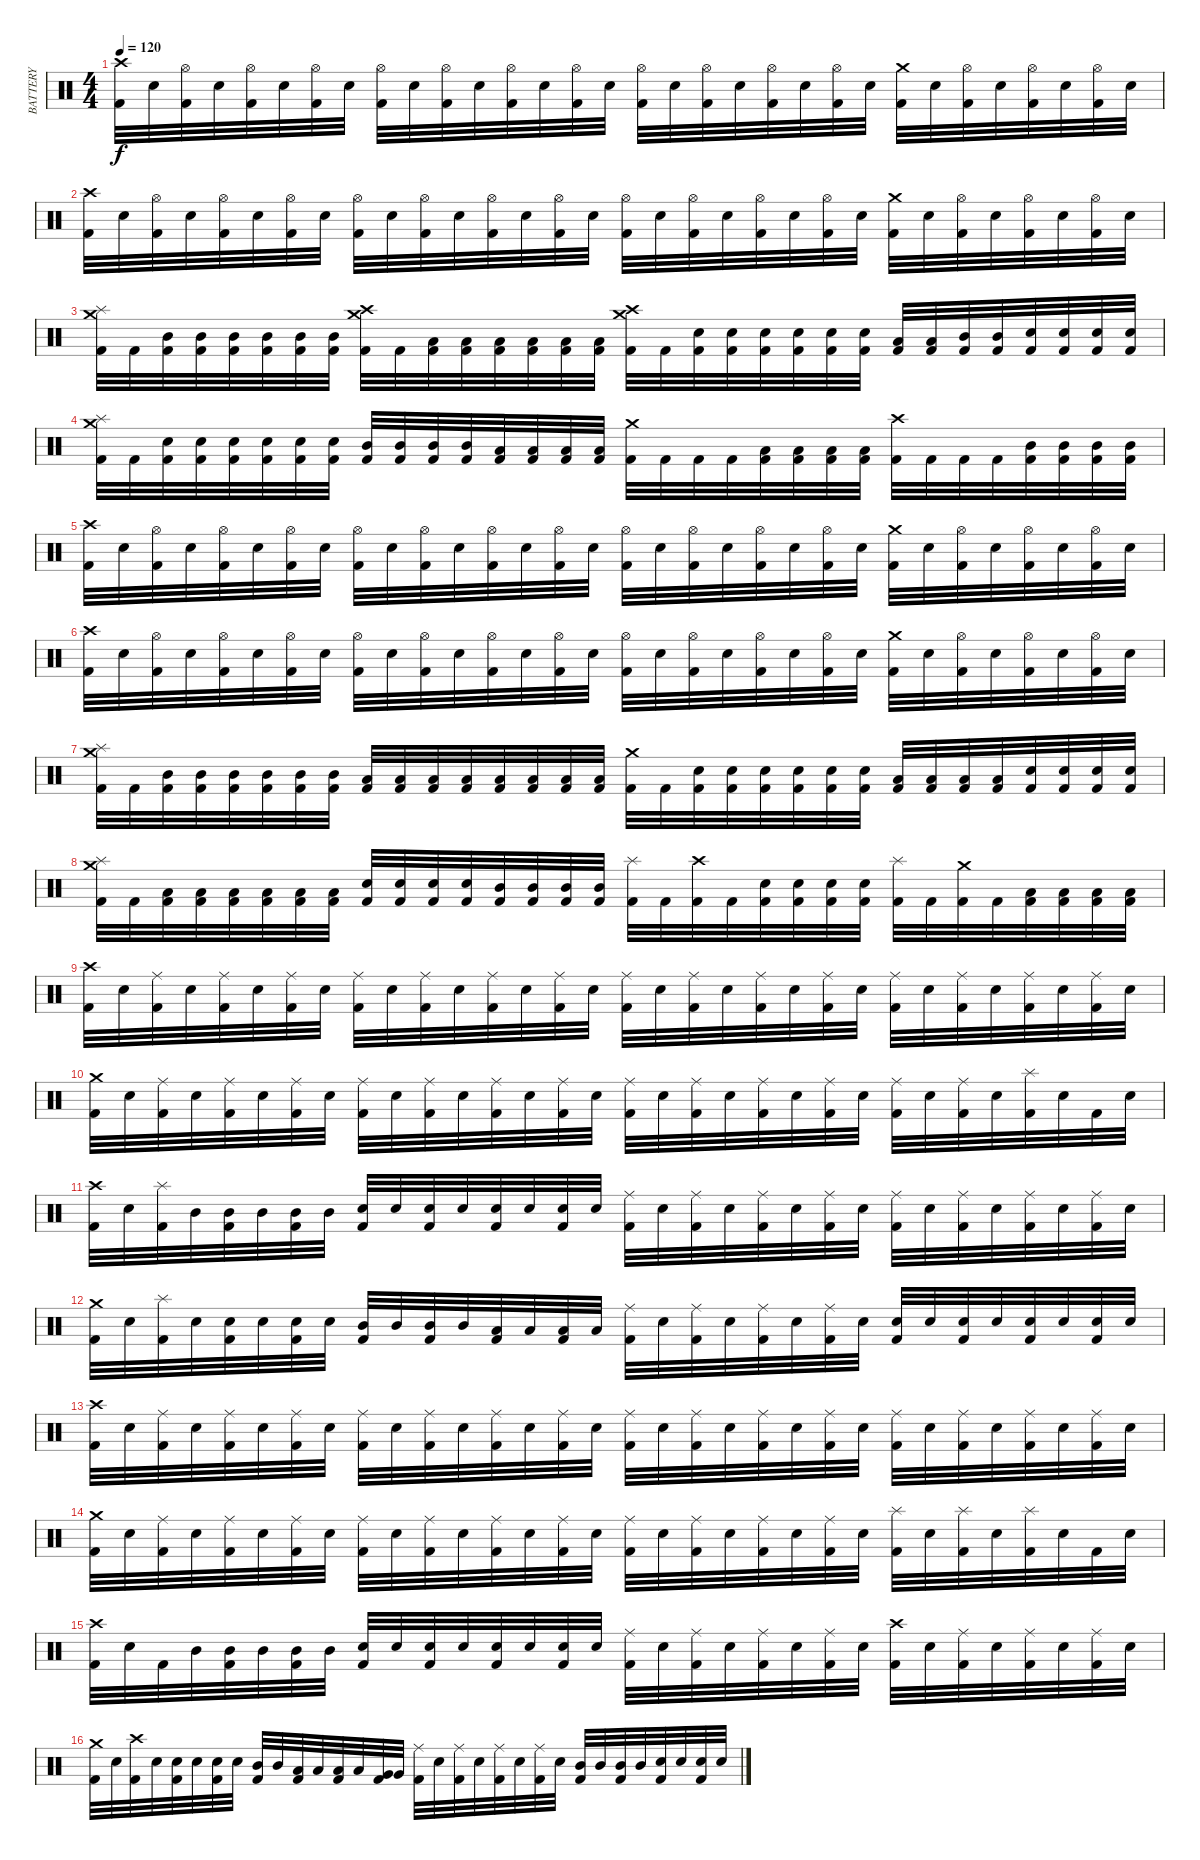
\track ("BATTERY" "BATTERY") {instrument percussion}
\staff {score}
\articulation defaults
\ts (4 4)
\tempo 120
\clef neutral
\ks c
("Kick (hit) 2" "Crash high (hit)").32{dy f} "Snare (hit) 2".32 ("Kick (hit) 2" "Hi-Hat (open)").32 "Snare (hit) 2".32 ("Kick (hit) 2" "Hi-Hat (open)").32 "Snare (hit) 2".32 ("Kick (hit) 2" "Hi-Hat (open)").32 "Snare (hit) 2".32 ("Kick (hit) 2" "Hi-Hat (open)").32 "Snare (hit) 2".32 ("Kick (hit) 2" "Hi-Hat (open)").32 "Snare (hit) 2".32 ("Kick (hit) 2" "Hi-Hat (open)").32 "Snare (hit) 2".32 ("Kick (hit) 2" "Hi-Hat (open)").32 "Snare (hit) 2".32 ("Kick (hit) 2" "Hi-Hat (open)").32 "Snare (hit) 2".32 ("Kick (hit) 2" "Hi-Hat (open)").32 "Snare (hit) 2".32 ("Kick (hit) 2" "Hi-Hat (open)").32 "Snare (hit) 2".32 ("Kick (hit) 2" "Hi-Hat (open)").32 "Snare (hit) 2".32 ("Kick (hit) 2" "Crash medium (hit)").32 "Snare (hit) 2".32 ("Kick (hit) 2" "Hi-Hat (open)").32 "Snare (hit) 2".32 ("Kick (hit) 2" "Hi-Hat (open)").32 "Snare (hit) 2".32 ("Kick (hit) 2" "Hi-Hat (open)").32 "Snare (hit) 2".32 |
("Kick (hit) 2" "Crash high (hit)").32 "Snare (hit) 2".32 ("Kick (hit) 2" "Hi-Hat (open)").32 "Snare (hit) 2".32 ("Kick (hit) 2" "Hi-Hat (open)").32 "Snare (hit) 2".32 ("Kick (hit) 2" "Hi-Hat (open)").32 "Snare (hit) 2".32 ("Kick (hit) 2" "Hi-Hat (open)").32 "Snare (hit) 2".32 ("Kick (hit) 2" "Hi-Hat (open)").32 "Snare (hit) 2".32 ("Kick (hit) 2" "Hi-Hat (open)").32 "Snare (hit) 2".32 ("Kick (hit) 2" "Hi-Hat (open)").32 "Snare (hit) 2".32 ("Kick (hit) 2" "Hi-Hat (open)").32 "Snare (hit) 2".32 ("Kick (hit) 2" "Hi-Hat (open)").32 "Snare (hit) 2".32 ("Kick (hit) 2" "Hi-Hat (open)").32 "Snare (hit) 2".32 ("Kick (hit) 2" "Hi-Hat (open)").32 "Snare (hit) 2".32 ("Kick (hit) 2" "Crash medium (hit)").32 "Snare (hit) 2".32 ("Kick (hit) 2" "Hi-Hat (open)").32 "Snare (hit) 2".32 ("Kick (hit) 2" "Hi-Hat (open)").32 "Snare (hit) 2".32 ("Kick (hit) 2" "Hi-Hat (open)").32 "Snare (hit) 2".32 |
("Kick (hit) 2" "Splash (hit)" "Crash medium (hit)").32 "Kick (hit) 2".32 ("Kick (hit) 2" "Mid Tom (hit)").32 ("Kick (hit) 2" "Mid Tom (hit)").32 ("Kick (hit) 2" "Mid Tom (hit)").32 ("Kick (hit) 2" "Mid Tom (hit)").32 ("Kick (hit) 2" "Mid Tom (hit)").32 ("Kick (hit) 2" "Mid Tom (hit)").32 ("Kick (hit) 2" "Crash medium (hit)" "Crash high (hit)").32 "Kick (hit) 2".32 ("Kick (hit) 2" "Low Tom (hit)").32 ("Kick (hit) 2" "Low Tom (hit)").32 ("Kick (hit) 2" "Low Tom (hit)").32 ("Kick (hit) 2" "Low Tom (hit)").32 ("Kick (hit) 2" "Low Tom (hit)").32 ("Kick (hit) 2" "Low Tom (hit)").32 ("Kick (hit) 2" "Crash high (hit)" "Crash medium (hit)").32 "Kick (hit) 2".32 ("Kick (hit) 2" "Snare (hit) 2").32 ("Kick (hit) 2" "Snare (hit) 2").32 ("Kick (hit) 2" "Snare (hit) 2").32 ("Kick (hit) 2" "Snare (hit) 2").32 ("Kick (hit) 2" "Snare (hit) 2").32 ("Kick (hit) 2" "Snare (hit) 2").32 ("Kick (hit) 2" "Low Tom (hit)").32 ("Kick (hit) 2" "Low Tom (hit)").32 ("Kick (hit) 2" "Mid Tom (hit)").32 ("Kick (hit) 2" "Mid Tom (hit)").32 ("Kick (hit) 2" "Snare (hit) 2").32 ("Kick (hit) 2" "Snare (hit) 2").32 ("Kick (hit) 2" "Snare (hit) 2").32 ("Kick (hit) 2" "Snare (hit) 2").32 |
("Kick (hit) 2" "Splash (hit)" "Crash medium (hit)").32 "Kick (hit) 2".32 ("Kick (hit) 2" "Snare (hit) 2").32 ("Kick (hit) 2" "Snare (hit) 2").32 ("Kick (hit) 2" "Snare (hit) 2").32 ("Kick (hit) 2" "Snare (hit) 2").32 ("Kick (hit) 2" "Snare (hit) 2").32 ("Kick (hit) 2" "Snare (hit) 2").32 ("Kick (hit) 2" "Mid Tom (hit)").32 ("Kick (hit) 2" "Mid Tom (hit)").32 ("Kick (hit) 2" "Mid Tom (hit)").32 ("Kick (hit) 2" "Mid Tom (hit)").32 ("Kick (hit) 2" "Low Tom (hit)").32 ("Kick (hit) 2" "Low Tom (hit)").32 ("Kick (hit) 2" "Low Tom (hit)").32 ("Kick (hit) 2" "Low Tom (hit)").32 ("Kick (hit) 2" "Crash medium (hit)").32 "Kick (hit) 2".32 "Kick (hit) 2".32 "Kick (hit) 2".32 ("Kick (hit) 2" "Low Tom (hit)").32 ("Kick (hit) 2" "Low Tom (hit)").32 ("Kick (hit) 2" "Low Tom (hit)").32 ("Kick (hit) 2" "Low Tom (hit)").32 ("Kick (hit) 2" "Crash high (hit)").32 "Kick (hit) 2".32 "Kick (hit) 2".32 "Kick (hit) 2".32 ("Kick (hit) 2" "Mid Tom (hit)").32 ("Kick (hit) 2" "Mid Tom (hit)").32 ("Kick (hit) 2" "Mid Tom (hit)").32 ("Kick (hit) 2" "Mid Tom (hit)").32 |
("Kick (hit) 2" "Crash high (hit)").32 "Snare (hit) 2".32 ("Kick (hit) 2" "Hi-Hat (open)").32 "Snare (hit) 2".32 ("Kick (hit) 2" "Hi-Hat (open)").32 "Snare (hit) 2".32 ("Kick (hit) 2" "Hi-Hat (open)").32 "Snare (hit) 2".32 ("Kick (hit) 2" "Hi-Hat (open)").32 "Snare (hit) 2".32 ("Kick (hit) 2" "Hi-Hat (open)").32 "Snare (hit) 2".32 ("Kick (hit) 2" "Hi-Hat (open)").32 "Snare (hit) 2".32 ("Kick (hit) 2" "Hi-Hat (open)").32 "Snare (hit) 2".32 ("Kick (hit) 2" "Hi-Hat (open)").32 "Snare (hit) 2".32 ("Kick (hit) 2" "Hi-Hat (open)").32 "Snare (hit) 2".32 ("Kick (hit) 2" "Hi-Hat (open)").32 "Snare (hit) 2".32 ("Kick (hit) 2" "Hi-Hat (open)").32 "Snare (hit) 2".32 ("Kick (hit) 2" "Crash medium (hit)").32 "Snare (hit) 2".32 ("Kick (hit) 2" "Hi-Hat (open)").32 "Snare (hit) 2".32 ("Kick (hit) 2" "Hi-Hat (open)").32 "Snare (hit) 2".32 ("Kick (hit) 2" "Hi-Hat (open)").32 "Snare (hit) 2".32 |
("Kick (hit) 2" "Crash high (hit)").32 "Snare (hit) 2".32 ("Kick (hit) 2" "Hi-Hat (open)").32 "Snare (hit) 2".32 ("Kick (hit) 2" "Hi-Hat (open)").32 "Snare (hit) 2".32 ("Kick (hit) 2" "Hi-Hat (open)").32 "Snare (hit) 2".32 ("Kick (hit) 2" "Hi-Hat (open)").32 "Snare (hit) 2".32 ("Kick (hit) 2" "Hi-Hat (open)").32 "Snare (hit) 2".32 ("Kick (hit) 2" "Hi-Hat (open)").32 "Snare (hit) 2".32 ("Kick (hit) 2" "Hi-Hat (open)").32 "Snare (hit) 2".32 ("Kick (hit) 2" "Hi-Hat (open)").32 "Snare (hit) 2".32 ("Kick (hit) 2" "Hi-Hat (open)").32 "Snare (hit) 2".32 ("Kick (hit) 2" "Hi-Hat (open)").32 "Snare (hit) 2".32 ("Kick (hit) 2" "Hi-Hat (open)").32 "Snare (hit) 2".32 ("Kick (hit) 2" "Crash medium (hit)").32 "Snare (hit) 2".32 ("Kick (hit) 2" "Hi-Hat (open)").32 "Snare (hit) 2".32 ("Kick (hit) 2" "Hi-Hat (open)").32 "Snare (hit) 2".32 ("Kick (hit) 2" "Hi-Hat (open)").32 "Snare (hit) 2".32 |
("Kick (hit) 2" "Splash (hit)" "Crash medium (hit)").32 "Kick (hit) 2".32 ("Kick (hit) 2" "Mid Tom (hit)").32 ("Kick (hit) 2" "Mid Tom (hit)").32 ("Kick (hit) 2" "Mid Tom (hit)").32 ("Kick (hit) 2" "Mid Tom (hit)").32 ("Kick (hit) 2" "Mid Tom (hit)").32 ("Kick (hit) 2" "Mid Tom (hit)").32 ("Kick (hit) 2" "Low Tom (hit)").32 ("Kick (hit) 2" "Low Tom (hit)").32 ("Kick (hit) 2" "Low Tom (hit)").32 ("Kick (hit) 2" "Low Tom (hit)").32 ("Kick (hit) 2" "Low Tom (hit)").32 ("Kick (hit) 2" "Low Tom (hit)").32 ("Kick (hit) 2" "Low Tom (hit)").32 ("Kick (hit) 2" "Low Tom (hit)").32 ("Kick (hit) 2" "Crash medium (hit)").32 "Kick (hit) 2".32 ("Kick (hit) 2" "Snare (hit) 2").32 ("Kick (hit) 2" "Snare (hit) 2").32 ("Kick (hit) 2" "Snare (hit) 2").32 ("Kick (hit) 2" "Snare (hit) 2").32 ("Kick (hit) 2" "Snare (hit) 2").32 ("Kick (hit) 2" "Snare (hit) 2").32 ("Kick (hit) 2" "Low Tom (hit)").32 ("Kick (hit) 2" "Low Tom (hit)").32 ("Kick (hit) 2" "Low Tom (hit)").32 ("Kick (hit) 2" "Low Tom (hit)").32 ("Kick (hit) 2" "Snare (hit) 2").32 ("Kick (hit) 2" "Snare (hit) 2").32 ("Kick (hit) 2" "Snare (hit) 2").32 ("Kick (hit) 2" "Snare (hit) 2").32 |
("Kick (hit) 2" "Splash (hit)" "Crash medium (hit)").32 "Kick (hit) 2".32 ("Kick (hit) 2" "Low Tom (hit)").32 ("Kick (hit) 2" "Low Tom (hit)").32 ("Kick (hit) 2" "Low Tom (hit)").32 ("Kick (hit) 2" "Low Tom (hit)").32 ("Kick (hit) 2" "Low Tom (hit)").32 ("Kick (hit) 2" "Low Tom (hit)").32 ("Kick (hit) 2" "Snare (hit) 2").32 ("Kick (hit) 2" "Snare (hit) 2").32 ("Kick (hit) 2" "Snare (hit) 2").32 ("Kick (hit) 2" "Snare (hit) 2").32 ("Kick (hit) 2" "Mid Tom (hit)").32 ("Kick (hit) 2" "Mid Tom (hit)").32 ("Kick (hit) 2" "Mid Tom (hit)").32 ("Kick (hit) 2" "Mid Tom (hit)").32 ("Kick (hit) 2" "Splash (hit)").32 "Kick (hit) 2".32 ("Kick (hit) 2" "Crash high (hit)").32 "Kick (hit) 2".32 ("Kick (hit) 2" "Snare (hit) 2").32 ("Kick (hit) 2" "Snare (hit) 2").32 ("Kick (hit) 2" "Snare (hit) 2").32 ("Kick (hit) 2" "Snare (hit) 2").32 ("Kick (hit) 2" "Splash (hit)").32 "Kick (hit) 2".32 ("Kick (hit) 2" "Crash medium (hit)").32 "Kick (hit) 2".32 ("Kick (hit) 2" "Low Tom (hit)").32 ("Kick (hit) 2" "Low Tom (hit)").32 ("Kick (hit) 2" "Low Tom (hit)").32 ("Kick (hit) 2" "Low Tom (hit)").32 |
("Kick (hit) 2" "Crash high (hit)").32 "Snare (hit) 2".32 ("Kick (hit) 2" "Ride (middle)").32 "Snare (hit) 2".32 ("Kick (hit) 2" "Ride (middle)").32 "Snare (hit) 2".32 ("Kick (hit) 2" "Ride (middle)").32 "Snare (hit) 2".32 ("Kick (hit) 2" "Ride (middle)").32 "Snare (hit) 2".32 ("Kick (hit) 2" "Ride (middle)").32 "Snare (hit) 2".32 ("Kick (hit) 2" "Ride (middle)").32 "Snare (hit) 2".32 ("Kick (hit) 2" "Ride (middle)").32 "Snare (hit) 2".32 ("Kick (hit) 2" "Ride (middle)").32 "Snare (hit) 2".32 ("Kick (hit) 2" "Ride (middle)").32 "Snare (hit) 2".32 ("Kick (hit) 2" "Ride (middle)").32 "Snare (hit) 2".32 ("Kick (hit) 2" "Ride (middle)").32 "Snare (hit) 2".32 ("Kick (hit) 2" "Ride (middle)").32 "Snare (hit) 2".32 ("Kick (hit) 2" "Ride (middle)").32 "Snare (hit) 2".32 ("Kick (hit) 2" "Ride (middle)").32 "Snare (hit) 2".32 ("Kick (hit) 2" "Ride (middle)").32 "Snare (hit) 2".32 |
("Kick (hit) 2" "Crash medium (hit)").32 "Snare (hit) 2".32 ("Kick (hit) 2" "Ride (middle)").32 "Snare (hit) 2".32 ("Kick (hit) 2" "Ride (middle)").32 "Snare (hit) 2".32 ("Kick (hit) 2" "Ride (middle)").32 "Snare (hit) 2".32 ("Kick (hit) 2" "Ride (middle)").32 "Snare (hit) 2".32 ("Kick (hit) 2" "Ride (middle)").32 "Snare (hit) 2".32 ("Kick (hit) 2" "Ride (middle)").32 "Snare (hit) 2".32 ("Kick (hit) 2" "Ride (middle)").32 "Snare (hit) 2".32 ("Kick (hit) 2" "Ride (middle)").32 "Snare (hit) 2".32 ("Kick (hit) 2" "Ride (middle)").32 "Snare (hit) 2".32 ("Kick (hit) 2" "Ride (middle)").32 "Snare (hit) 2".32 ("Kick (hit) 2" "Ride (middle)").32 "Snare (hit) 2".32 ("Kick (hit) 2" "Ride (middle)").32 "Snare (hit) 2".32 ("Kick (hit) 2" "Ride (middle)").32 "Snare (hit) 2".32 ("Kick (hit) 2" "Splash (hit)").32 "Snare (hit) 2".32 "Kick (hit) 2".32 "Snare (hit) 2".32 |
("Kick (hit) 2" "Crash high (hit)").32 "Snare (hit) 2".32 ("Kick (hit) 2" "Splash (hit)").32 "Mid Tom (hit)".32 ("Kick (hit) 2" "Mid Tom (hit)").32 "Mid Tom (hit)".32 ("Kick (hit) 2" "Mid Tom (hit)").32 "Mid Tom (hit)".32 ("Kick (hit) 2" "Snare (hit) 2").32 "Snare (hit) 2".32 ("Kick (hit) 2" "Snare (hit) 2").32 "Snare (hit) 2".32 ("Kick (hit) 2" "Snare (hit) 2").32 "Snare (hit) 2".32 ("Kick (hit) 2" "Snare (hit) 2").32 "Snare (hit) 2".32 ("Kick (hit) 2" "Ride (middle)").32 "Snare (hit) 2".32 ("Kick (hit) 2" "Ride (middle)").32 "Snare (hit) 2".32 ("Kick (hit) 2" "Ride (middle)").32 "Snare (hit) 2".32 ("Kick (hit) 2" "Ride (middle)").32 "Snare (hit) 2".32 ("Kick (hit) 2" "Ride (middle)").32 "Snare (hit) 2".32 ("Kick (hit) 2" "Ride (middle)").32 "Snare (hit) 2".32 ("Kick (hit) 2" "Ride (middle)").32 "Snare (hit) 2".32 ("Kick (hit) 2" "Ride (middle)").32 "Snare (hit) 2".32 |
("Kick (hit) 2" "Crash medium (hit)").32 "Snare (hit) 2".32 ("Kick (hit) 2" "Splash (hit)").32 "Snare (hit) 2".32 ("Kick (hit) 2" "Snare (hit) 2").32 "Snare (hit) 2".32 ("Kick (hit) 2" "Snare (hit) 2").32 "Snare (hit) 2".32 ("Kick (hit) 2" "Mid Tom (hit)").32 "Mid Tom (hit)".32 ("Kick (hit) 2" "Mid Tom (hit)").32 "Mid Tom (hit)".32 ("Kick (hit) 2" "Low Tom (hit)").32 "Low Tom (hit)".32 ("Kick (hit) 2" "Low Tom (hit)").32 "Low Tom (hit)".32 ("Kick (hit) 2" "Ride (middle)").32 "Snare (hit) 2".32 ("Kick (hit) 2" "Ride (middle)").32 "Snare (hit) 2".32 ("Kick (hit) 2" "Ride (middle)").32 "Snare (hit) 2".32 ("Kick (hit) 2" "Ride (middle)").32 "Snare (hit) 2".32 ("Kick (hit) 2" "Snare (hit) 2").32 "Snare (hit) 2".32 ("Kick (hit) 2" "Snare (hit) 2").32 "Snare (hit) 2".32 ("Kick (hit) 2" "Snare (hit) 2").32 "Snare (hit) 2".32 ("Kick (hit) 2" "Snare (hit) 2").32 "Snare (hit) 2".32 |
("Kick (hit) 2" "Crash high (hit)").32 "Snare (hit) 2".32 ("Kick (hit) 2" "Ride (middle)").32 "Snare (hit) 2".32 ("Kick (hit) 2" "Ride (middle)").32 "Snare (hit) 2".32 ("Kick (hit) 2" "Ride (middle)").32 "Snare (hit) 2".32 ("Kick (hit) 2" "Ride (middle)").32 "Snare (hit) 2".32 ("Kick (hit) 2" "Ride (middle)").32 "Snare (hit) 2".32 ("Kick (hit) 2" "Ride (middle)").32 "Snare (hit) 2".32 ("Kick (hit) 2" "Ride (middle)").32 "Snare (hit) 2".32 ("Kick (hit) 2" "Ride (middle)").32 "Snare (hit) 2".32 ("Kick (hit) 2" "Ride (middle)").32 "Snare (hit) 2".32 ("Kick (hit) 2" "Ride (middle)").32 "Snare (hit) 2".32 ("Kick (hit) 2" "Ride (middle)").32 "Snare (hit) 2".32 ("Kick (hit) 2" "Ride (middle)").32 "Snare (hit) 2".32 ("Kick (hit) 2" "Ride (middle)").32 "Snare (hit) 2".32 ("Kick (hit) 2" "Ride (middle)").32 "Snare (hit) 2".32 ("Kick (hit) 2" "Ride (middle)").32 "Snare (hit) 2".32 |
("Kick (hit) 2" "Crash medium (hit)").32 "Snare (hit) 2".32 ("Kick (hit) 2" "Ride (middle)").32 "Snare (hit) 2".32 ("Kick (hit) 2" "Ride (middle)").32 "Snare (hit) 2".32 ("Kick (hit) 2" "Ride (middle)").32 "Snare (hit) 2".32 ("Kick (hit) 2" "Ride (middle)").32 "Snare (hit) 2".32 ("Kick (hit) 2" "Ride (middle)").32 "Snare (hit) 2".32 ("Kick (hit) 2" "Ride (middle)").32 "Snare (hit) 2".32 ("Kick (hit) 2" "Ride (middle)").32 "Snare (hit) 2".32 ("Kick (hit) 2" "Ride (middle)").32 "Snare (hit) 2".32 ("Kick (hit) 2" "Ride (middle)").32 "Snare (hit) 2".32 ("Kick (hit) 2" "Ride (middle)").32 "Snare (hit) 2".32 ("Kick (hit) 2" "Ride (middle)").32 "Snare (hit) 2".32 ("Kick (hit) 2" "Splash (hit)").32 "Snare (hit) 2".32 ("Kick (hit) 2" "Splash (hit)").32 "Snare (hit) 2".32 ("Kick (hit) 2" "Splash (hit)").32 "Snare (hit) 2".32 "Kick (hit) 2".32 "Snare (hit) 2".32 |
("Kick (hit) 2" "Crash high (hit)").32 "Snare (hit) 2".32 "Kick (hit) 2".32 "Mid Tom (hit)".32 ("Kick (hit) 2" "Mid Tom (hit)").32 "Mid Tom (hit)".32 ("Kick (hit) 2" "Mid Tom (hit)").32 "Mid Tom (hit)".32 ("Kick (hit) 2" "Snare (hit) 2").32 "Snare (hit) 2".32 ("Kick (hit) 2" "Snare (hit) 2").32 "Snare (hit) 2".32 ("Kick (hit) 2" "Snare (hit) 2").32 "Snare (hit) 2".32 ("Kick (hit) 2" "Snare (hit) 2").32 "Snare (hit) 2".32 ("Kick (hit) 2" "Ride (middle)").32 "Snare (hit) 2".32 ("Kick (hit) 2" "Ride (middle)").32 "Snare (hit) 2".32 ("Kick (hit) 2" "Ride (middle)").32 "Snare (hit) 2".32 ("Kick (hit) 2" "Ride (middle)").32 "Snare (hit) 2".32 ("Kick (hit) 2" "Crash high (hit)").32 "Snare (hit) 2".32 ("Kick (hit) 2" "Ride (middle)").32 "Snare (hit) 2".32 ("Kick (hit) 2" "Ride (middle)").32 "Snare (hit) 2".32 ("Kick (hit) 2" "Ride (middle)").32 "Snare (hit) 2".32 |
("Kick (hit) 2" "Crash medium (hit)").32 "Snare (hit) 2".32 ("Kick (hit) 2" "Crash high (hit)").32 "Snare (hit) 2".32 ("Kick (hit) 2" "Snare (hit) 2").32 "Snare (hit) 2".32 ("Kick (hit) 2" "Snare (hit) 2").32 "Snare (hit) 2".32 ("Kick (hit) 2" "Mid Tom (hit)").32 "Mid Tom (hit)".32 ("Kick (hit) 2" "Low Tom (hit)").32 "Low Tom (hit)".32 ("Kick (hit) 2" "Low Tom (hit)").32 "Low Tom (hit)".32 ("Kick (hit) 2" "Very Low Tom (hit)").32 "Very Low Tom (hit)".32 ("Kick (hit) 2" "Ride (middle)").32 "Snare (hit) 2".32 ("Kick (hit) 2" "Ride (middle)").32 "Snare (hit) 2".32 ("Kick (hit) 2" "Ride (middle)").32 "Snare (hit) 2".32 ("Kick (hit) 2" "Ride (middle)").32 "Snare (hit) 2".32 ("Kick (hit) 2" "Mid Tom (hit)").32 "Mid Tom (hit)".32 ("Kick (hit) 2" "Mid Tom (hit)").32 "Mid Tom (hit)".32 ("Kick (hit) 2" "Snare (hit) 2").32 "Snare (hit) 2".32 ("Kick (hit) 2" "Snare (hit) 2").32 "Snare (hit) 2".32
